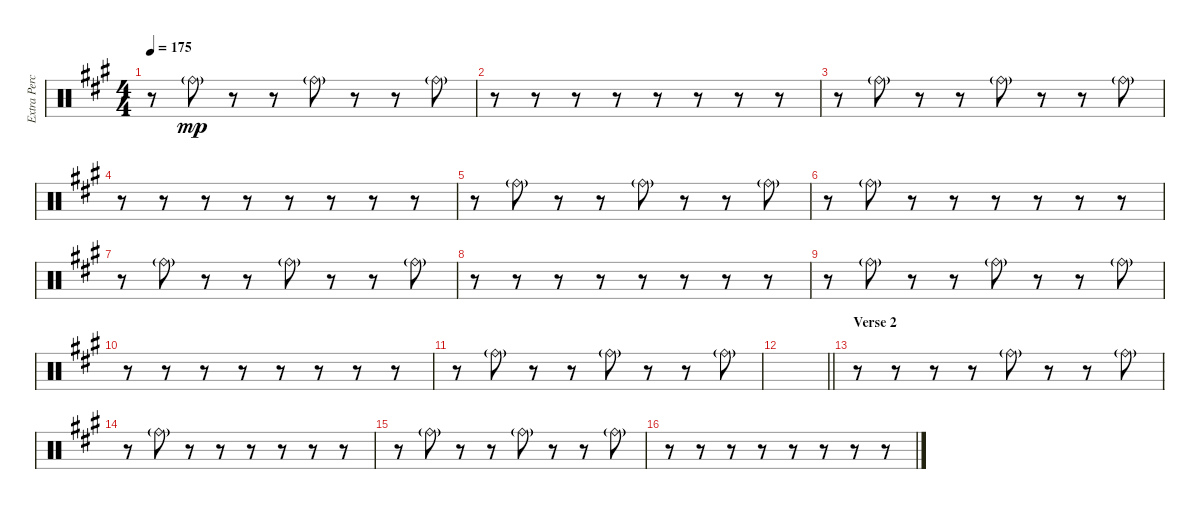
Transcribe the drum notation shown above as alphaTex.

\track ("Extra Percussion" "Extra Perc") {instrument percussion}
\staff {score}
\articulation defaults
\ts (4 4)
\tempo 175
\clef neutral
\ks f#minor
r.8{dy mp} "Ride (bell)"{g}.8 r.8 r.8 "Ride (bell)"{g}.8 r.8 r.8 "Ride (bell)"{g}.8 |
r.8 r.8 r.8 r.8 r.8 r.8 r.8 r.8 |
r.8 "Ride (bell)"{g}.8 r.8 r.8 "Ride (bell)"{g}.8 r.8 r.8 "Ride (bell)"{g}.8 |
r.8 r.8 r.8 r.8 r.8 r.8 r.8 r.8 |
r.8 "Ride (bell)"{g}.8 r.8 r.8 "Ride (bell)"{g}.8 r.8 r.8 "Ride (bell)"{g}.8 |
r.8 "Ride (bell)"{g}.8 r.8 r.8 r.8 r.8 r.8 r.8 |
r.8 "Ride (bell)"{g}.8 r.8 r.8 "Ride (bell)"{g}.8 r.8 r.8 "Ride (bell)"{g}.8 |
r.8 r.8 r.8 r.8 r.8 r.8 r.8 r.8 |
r.8 "Ride (bell)"{g}.8 r.8 r.8 "Ride (bell)"{g}.8 r.8 r.8 "Ride (bell)"{g}.8 |
r.8 r.8 r.8 r.8 r.8 r.8 r.8 r.8 |
r.8 "Ride (bell)"{g}.8 r.8 r.8 "Ride (bell)"{g}.8 r.8 r.8 "Ride (bell)"{g}.8 |
\barLineRight lightlight
|
\section ("" "Verse 2")
r.8 r.8 r.8 r.8 "Ride (bell)"{g}.8 r.8 r.8 "Ride (bell)"{g}.8 |
r.8 "Ride (bell)"{g}.8 r.8 r.8 r.8 r.8 r.8 r.8 |
r.8 "Ride (bell)"{g}.8 r.8 r.8 "Ride (bell)"{g}.8 r.8 r.8 "Ride (bell)"{g}.8 |
r.8 r.8 r.8 r.8 r.8 r.8 r.8 r.8
